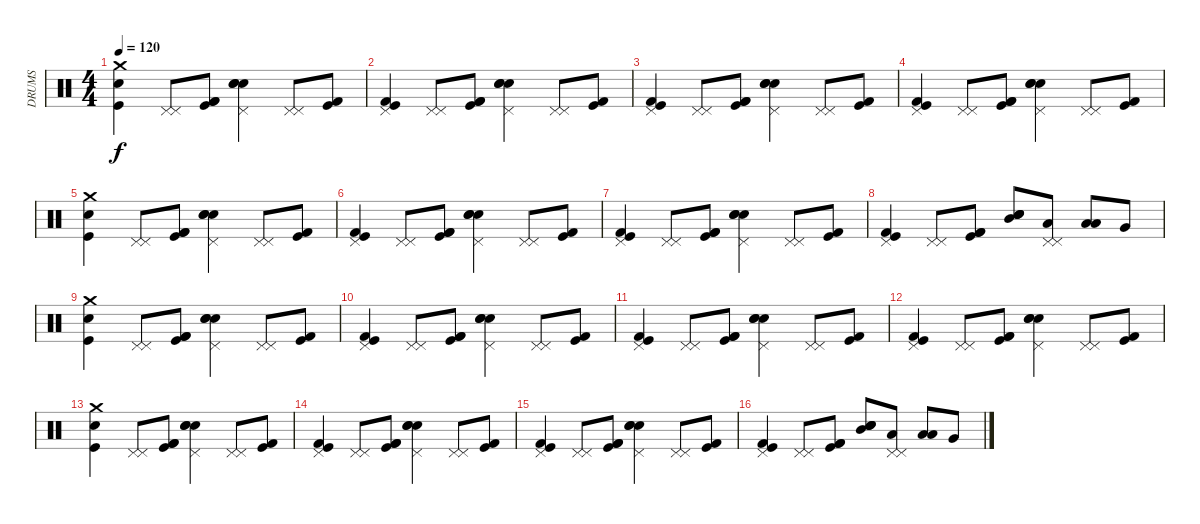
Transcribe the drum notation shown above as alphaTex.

\track ("DRUMS" "DRUMS") {instrument percussion}
\staff {score}
\articulation defaults
\ts (4 4)
\tempo 120
\clef neutral
\ks c
("Crash medium (hit)" "Snare (hit) 2" "Kick (hit)").4{dy f volume 13} ("Pedal Hi-Hat (hit)" "Pedal Hi-Hat (hit)").8 ("Kick (hit) 2" "Kick (hit)" "Kick (hit) 2").8 ("Snare (hit) 2" "Snare (hit) 2" "Pedal Hi-Hat (hit)" "Electric Snare (hit)").4 ("Pedal Hi-Hat (hit)" "Pedal Hi-Hat (hit)").8 ("Kick (hit)" "Kick (hit) 2").8 |
("Pedal Hi-Hat (hit)" "Kick (hit) 2" "Kick (hit)").4 ("Pedal Hi-Hat (hit)" "Pedal Hi-Hat (hit)").8 ("Kick (hit) 2" "Kick (hit)" "Kick (hit) 2").8 ("Snare (hit) 2" "Snare (hit) 2" "Pedal Hi-Hat (hit)" "Electric Snare (hit)").4 ("Pedal Hi-Hat (hit)" "Pedal Hi-Hat (hit)").8 ("Kick (hit)" "Kick (hit) 2").8 |
("Pedal Hi-Hat (hit)" "Kick (hit) 2" "Kick (hit)").4 ("Pedal Hi-Hat (hit)" "Pedal Hi-Hat (hit)").8 ("Kick (hit) 2" "Kick (hit)" "Kick (hit) 2").8 ("Snare (hit) 2" "Snare (hit) 2" "Pedal Hi-Hat (hit)" "Electric Snare (hit)").4 ("Pedal Hi-Hat (hit)" "Pedal Hi-Hat (hit)").8 ("Kick (hit)" "Kick (hit) 2").8 |
("Pedal Hi-Hat (hit)" "Kick (hit) 2" "Kick (hit)").4 ("Pedal Hi-Hat (hit)" "Pedal Hi-Hat (hit)").8 ("Kick (hit) 2" "Kick (hit)" "Kick (hit) 2").8 ("Snare (hit) 2" "Snare (hit) 2" "Pedal Hi-Hat (hit)" "Electric Snare (hit)").4 ("Pedal Hi-Hat (hit)" "Pedal Hi-Hat (hit)").8 ("Kick (hit)" "Kick (hit) 2").8 |
("Crash medium (hit)" "Snare (hit) 2" "Kick (hit)").4 ("Pedal Hi-Hat (hit)" "Pedal Hi-Hat (hit)").8 ("Kick (hit) 2" "Kick (hit)" "Kick (hit) 2").8 ("Snare (hit) 2" "Snare (hit) 2" "Pedal Hi-Hat (hit)" "Electric Snare (hit)").4 ("Pedal Hi-Hat (hit)" "Pedal Hi-Hat (hit)").8 ("Kick (hit)" "Kick (hit) 2").8 |
("Pedal Hi-Hat (hit)" "Kick (hit) 2" "Kick (hit)").4 ("Pedal Hi-Hat (hit)" "Pedal Hi-Hat (hit)").8 ("Kick (hit) 2" "Kick (hit)" "Kick (hit) 2").8 ("Snare (hit) 2" "Snare (hit) 2" "Pedal Hi-Hat (hit)" "Electric Snare (hit)").4 ("Pedal Hi-Hat (hit)" "Pedal Hi-Hat (hit)").8 ("Kick (hit)" "Kick (hit) 2").8 |
("Pedal Hi-Hat (hit)" "Kick (hit) 2" "Kick (hit)").4 ("Pedal Hi-Hat (hit)" "Pedal Hi-Hat (hit)").8 ("Kick (hit) 2" "Kick (hit)" "Kick (hit) 2").8 ("Snare (hit) 2" "Snare (hit) 2" "Pedal Hi-Hat (hit)" "Electric Snare (hit)").4 ("Pedal Hi-Hat (hit)" "Pedal Hi-Hat (hit)").8 ("Kick (hit)" "Kick (hit) 2").8 |
("Pedal Hi-Hat (hit)" "Kick (hit) 2" "Kick (hit)").4 ("Pedal Hi-Hat (hit)" "Pedal Hi-Hat (hit)").8 ("Kick (hit) 2" "Kick (hit)" "Kick (hit) 2").8 ("Snare (hit) 2" "Snare (hit) 2" "Mid Tom (hit)" "Electric Snare (hit)").8 ("Pedal Hi-Hat (hit)" "Pedal Hi-Hat (hit)" "Low Tom (hit)").8 ("Low Floor Tom (hit)" "Low Floor Tom (hit)").8 "Very Low Tom (hit)".8 |
("Crash medium (hit)" "Snare (hit) 2" "Kick (hit)").4 ("Pedal Hi-Hat (hit)" "Pedal Hi-Hat (hit)").8 ("Kick (hit) 2" "Kick (hit)" "Kick (hit) 2").8 ("Snare (hit) 2" "Snare (hit) 2" "Pedal Hi-Hat (hit)" "Electric Snare (hit)").4 ("Pedal Hi-Hat (hit)" "Pedal Hi-Hat (hit)").8 ("Kick (hit)" "Kick (hit) 2").8 |
("Pedal Hi-Hat (hit)" "Kick (hit) 2" "Kick (hit)").4 ("Pedal Hi-Hat (hit)" "Pedal Hi-Hat (hit)").8 ("Kick (hit) 2" "Kick (hit)" "Kick (hit) 2").8 ("Snare (hit) 2" "Snare (hit) 2" "Pedal Hi-Hat (hit)" "Electric Snare (hit)").4 ("Pedal Hi-Hat (hit)" "Pedal Hi-Hat (hit)").8 ("Kick (hit)" "Kick (hit) 2").8 |
("Pedal Hi-Hat (hit)" "Kick (hit) 2" "Kick (hit)").4 ("Pedal Hi-Hat (hit)" "Pedal Hi-Hat (hit)").8 ("Kick (hit) 2" "Kick (hit)" "Kick (hit) 2").8 ("Snare (hit) 2" "Snare (hit) 2" "Pedal Hi-Hat (hit)" "Electric Snare (hit)").4 ("Pedal Hi-Hat (hit)" "Pedal Hi-Hat (hit)").8 ("Kick (hit)" "Kick (hit) 2").8 |
("Pedal Hi-Hat (hit)" "Kick (hit) 2" "Kick (hit)").4 ("Pedal Hi-Hat (hit)" "Pedal Hi-Hat (hit)").8 ("Kick (hit) 2" "Kick (hit)" "Kick (hit) 2").8 ("Snare (hit) 2" "Snare (hit) 2" "Pedal Hi-Hat (hit)" "Electric Snare (hit)").4 ("Pedal Hi-Hat (hit)" "Pedal Hi-Hat (hit)").8 ("Kick (hit)" "Kick (hit) 2").8 |
("Crash medium (hit)" "Snare (hit) 2" "Kick (hit)").4 ("Pedal Hi-Hat (hit)" "Pedal Hi-Hat (hit)").8 ("Kick (hit) 2" "Kick (hit)" "Kick (hit) 2").8 ("Snare (hit) 2" "Snare (hit) 2" "Pedal Hi-Hat (hit)" "Electric Snare (hit)").4 ("Pedal Hi-Hat (hit)" "Pedal Hi-Hat (hit)").8 ("Kick (hit)" "Kick (hit) 2").8 |
("Pedal Hi-Hat (hit)" "Kick (hit) 2" "Kick (hit)").4 ("Pedal Hi-Hat (hit)" "Pedal Hi-Hat (hit)").8 ("Kick (hit) 2" "Kick (hit)" "Kick (hit) 2").8 ("Snare (hit) 2" "Snare (hit) 2" "Pedal Hi-Hat (hit)" "Electric Snare (hit)").4 ("Pedal Hi-Hat (hit)" "Pedal Hi-Hat (hit)").8 ("Kick (hit)" "Kick (hit) 2").8 |
("Pedal Hi-Hat (hit)" "Kick (hit) 2" "Kick (hit)").4 ("Pedal Hi-Hat (hit)" "Pedal Hi-Hat (hit)").8 ("Kick (hit) 2" "Kick (hit)" "Kick (hit) 2").8 ("Snare (hit) 2" "Snare (hit) 2" "Pedal Hi-Hat (hit)" "Electric Snare (hit)").4 ("Pedal Hi-Hat (hit)" "Pedal Hi-Hat (hit)").8 ("Kick (hit)" "Kick (hit) 2").8 |
("Pedal Hi-Hat (hit)" "Kick (hit) 2" "Kick (hit)").4 ("Pedal Hi-Hat (hit)" "Pedal Hi-Hat (hit)").8 ("Kick (hit) 2" "Kick (hit)" "Kick (hit) 2").8 ("Snare (hit) 2" "Snare (hit) 2" "Mid Tom (hit)" "Electric Snare (hit)").8 ("Pedal Hi-Hat (hit)" "Pedal Hi-Hat (hit)" "Low Tom (hit)").8 ("Low Floor Tom (hit)" "Low Floor Tom (hit)").8 "Very Low Tom (hit)".8
